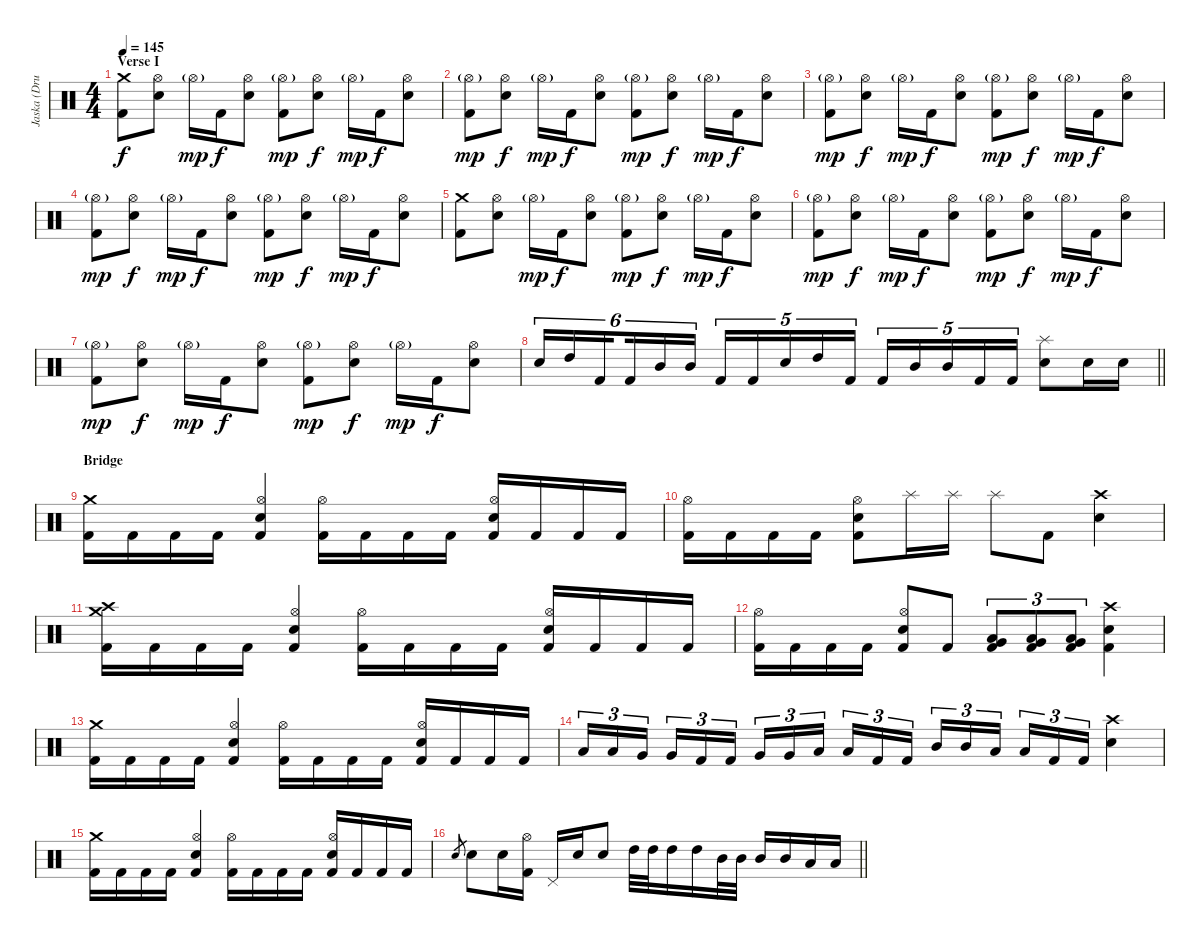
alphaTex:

\track ("Jaska (Drums)" "Jaska (Dru") {instrument percussion}
\staff {score}
\articulation defaults
\ts (4 4)
\section ("" "Verse I")
\tempo 145
\clef neutral
\ks c
("Crash medium (hit)" "Kick (hit) 2").8{dy f} ("Hi-Hat (open)" "Electric Snare (hit)").8 "Hi-Hat (open)"{g}.16{dy mp} "Kick (hit) 2".16{dy f} ("Hi-Hat (open)" "Electric Snare (hit)").8 ("Hi-Hat (open)"{g} "Kick (hit) 2").8{dy mp} ("Hi-Hat (open)" "Electric Snare (hit)").8{dy f} "Hi-Hat (open)"{g}.16{dy mp} "Kick (hit) 2".16{dy f} ("Hi-Hat (open)" "Electric Snare (hit)").8 |
("Hi-Hat (open)"{g} "Kick (hit) 2").8{dy mp} ("Hi-Hat (open)" "Electric Snare (hit)").8{dy f} "Hi-Hat (open)"{g}.16{dy mp} "Kick (hit) 2".16{dy f} ("Hi-Hat (open)" "Electric Snare (hit)").8 ("Hi-Hat (open)"{g} "Kick (hit) 2").8{dy mp} ("Hi-Hat (open)" "Electric Snare (hit)").8{dy f} "Hi-Hat (open)"{g}.16{dy mp} "Kick (hit) 2".16{dy f} ("Hi-Hat (open)" "Electric Snare (hit)").8 |
("Hi-Hat (open)"{g} "Kick (hit) 2").8{dy mp} ("Hi-Hat (open)" "Electric Snare (hit)").8{dy f} "Hi-Hat (open)"{g}.16{dy mp} "Kick (hit) 2".16{dy f} ("Hi-Hat (open)" "Electric Snare (hit)").8 ("Hi-Hat (open)"{g} "Kick (hit) 2").8{dy mp} ("Hi-Hat (open)" "Electric Snare (hit)").8{dy f} "Hi-Hat (open)"{g}.16{dy mp} "Kick (hit) 2".16{dy f} ("Hi-Hat (open)" "Electric Snare (hit)").8 |
("Hi-Hat (open)"{g} "Kick (hit) 2").8{dy mp} ("Hi-Hat (open)" "Electric Snare (hit)").8{dy f} "Hi-Hat (open)"{g}.16{dy mp} "Kick (hit) 2".16{dy f} ("Hi-Hat (open)" "Electric Snare (hit)").8 ("Hi-Hat (open)"{g} "Kick (hit) 2").8{dy mp} ("Hi-Hat (open)" "Electric Snare (hit)").8{dy f} "Hi-Hat (open)"{g}.16{dy mp} "Kick (hit) 2".16{dy f} ("Hi-Hat (open)" "Electric Snare (hit)").8 |
("Crash medium (hit)" "Kick (hit) 2").8 ("Hi-Hat (open)" "Electric Snare (hit)").8 "Hi-Hat (open)"{g}.16{dy mp} "Kick (hit) 2".16{dy f} ("Hi-Hat (open)" "Electric Snare (hit)").8 ("Hi-Hat (open)"{g} "Kick (hit) 2").8{dy mp} ("Hi-Hat (open)" "Electric Snare (hit)").8{dy f} "Hi-Hat (open)"{g}.16{dy mp} "Kick (hit) 2".16{dy f} ("Hi-Hat (open)" "Electric Snare (hit)").8 |
("Hi-Hat (open)"{g} "Kick (hit) 2").8{dy mp} ("Hi-Hat (open)" "Electric Snare (hit)").8{dy f} "Hi-Hat (open)"{g}.16{dy mp} "Kick (hit) 2".16{dy f} ("Hi-Hat (open)" "Electric Snare (hit)").8 ("Hi-Hat (open)"{g} "Kick (hit) 2").8{dy mp} ("Hi-Hat (open)" "Electric Snare (hit)").8{dy f} "Hi-Hat (open)"{g}.16{dy mp} "Kick (hit) 2".16{dy f} ("Hi-Hat (open)" "Electric Snare (hit)").8 |
("Hi-Hat (open)"{g} "Kick (hit) 2").8{dy mp} ("Hi-Hat (open)" "Electric Snare (hit)").8{dy f} "Hi-Hat (open)"{g}.16{dy mp} "Kick (hit) 2".16{dy f} ("Hi-Hat (open)" "Electric Snare (hit)").8 ("Hi-Hat (open)"{g} "Kick (hit) 2").8{dy mp} ("Hi-Hat (open)" "Electric Snare (hit)").8{dy f} "Hi-Hat (open)"{g}.16{dy mp} "Kick (hit) 2".16{dy f} ("Hi-Hat (open)" "Electric Snare (hit)").8 |
\barLineRight lightlight "Electric Snare (hit)".16{tu (6 4)} "High Tom (hit)".16{tu (6 4)} "Kick (hit) 2".16{tu (6 4) beam splitsecondary} "Kick (hit) 2".16{tu (6 4)} "Mid Tom (hit)".16{tu (6 4)} "Mid Tom (hit)".16{tu (6 4)} "Kick (hit) 2".16{tu (5 4)} "Kick (hit) 2".16{tu (5 4)} "Electric Snare (hit)".16{tu (5 4)} "High Tom (hit)".16{tu (5 4)} "Kick (hit) 2".16{tu (5 4)} "Kick (hit) 2".16{tu (5 4)} "Mid Tom (hit)".16{tu (5 4)} "Mid Tom (hit)".16{tu (5 4)} "Kick (hit) 2".16{tu (5 4)} "Kick (hit) 2".16{tu (5 4)}
("Splash (hit)" "Electric Snare (hit)").8 "Electric Snare (hit)".16 "Electric Snare (hit)".16 |
\section ("" "Bridge")
("Crash medium (hit)" "Kick (hit) 2").16 "Kick (hit) 2".16 "Kick (hit) 2".16 "Kick (hit) 2".16 ("Hi-Hat (open)" "Electric Snare (hit)" "Kick (hit) 2").4 ("Hi-Hat (open)" "Kick (hit) 2").16 "Kick (hit) 2".16 "Kick (hit) 2".16 "Kick (hit) 2".16 ("Hi-Hat (open)" "Electric Snare (hit)" "Kick (hit) 2").16 "Kick (hit) 2".16 "Kick (hit) 2".16 "Kick (hit) 2".16 |
("Hi-Hat (open)" "Kick (hit) 2").16 "Kick (hit) 2".16 "Kick (hit) 2".16 "Kick (hit) 2".16 ("Hi-Hat (open)" "Electric Snare (hit)" "Kick (hit) 2").8 "Splash (hit)".16 "Splash (hit)".16 "Splash (hit)".8 "Kick (hit) 2".8 ("Crash high (hit)" "Electric Snare (hit)").4 |
("Crash medium (hit)" "Crash high (hit)" "Kick (hit) 2").16 "Kick (hit) 2".16 "Kick (hit) 2".16 "Kick (hit) 2".16 ("Hi-Hat (open)" "Electric Snare (hit)" "Kick (hit) 2").4 ("Hi-Hat (open)" "Kick (hit) 2").16 "Kick (hit) 2".16 "Kick (hit) 2".16 "Kick (hit) 2".16 ("Hi-Hat (open)" "Electric Snare (hit)" "Kick (hit) 2").16 "Kick (hit) 2".16 "Kick (hit) 2".16 "Kick (hit) 2".16 |
("Hi-Hat (open)" "Kick (hit) 2").16 "Kick (hit) 2".16 "Kick (hit) 2".16 "Kick (hit) 2".16 ("Hi-Hat (open)" "Electric Snare (hit)" "Kick (hit) 2").8 "Kick (hit) 2".8 ("Low Tom (hit)" "Very Low Tom (hit)" "Kick (hit) 2").8{tu (3 2)} ("Low Tom (hit)" "Very Low Tom (hit)" "Kick (hit) 2").8{tu (3 2)} ("Low Tom (hit)" "Very Low Tom (hit)" "Kick (hit) 2").8{tu (3 2)} ("Crash high (hit)" "Electric Snare (hit)" "Kick (hit) 2").4 |
("Crash medium (hit)" "Kick (hit) 2").16 "Kick (hit) 2".16 "Kick (hit) 2".16 "Kick (hit) 2".16 ("Hi-Hat (open)" "Electric Snare (hit)" "Kick (hit) 2").4 ("Hi-Hat (open)" "Kick (hit) 2").16 "Kick (hit) 2".16 "Kick (hit) 2".16 "Kick (hit) 2".16 ("Hi-Hat (open)" "Electric Snare (hit)" "Kick (hit) 2").16 "Kick (hit) 2".16 "Kick (hit) 2".16 "Kick (hit) 2".16 |
"Low Tom (hit)".16{tu (3 2)} "Low Tom (hit)".16{tu (3 2)} "Very Low Tom (hit)".16{tu (3 2) beam splitsecondary} "Very Low Tom (hit)".16{tu (3 2)} "Kick (hit) 2".16{tu (3 2)} "Kick (hit) 2".16{tu (3 2)} "Very Low Tom (hit)".16{tu (3 2)} "Very Low Tom (hit)".16{tu (3 2)} "Low Floor Tom (hit)".16{tu (3 2) beam splitsecondary} "Low Floor Tom (hit)".16{tu (3 2)} "Kick (hit) 2".16{tu (3 2)} "Kick (hit) 2".16{tu (3 2)} "Mid Tom (hit)".16{tu (3 2)} "Mid Tom (hit)".16{tu (3 2)} "Low Tom (hit)".16{tu (3 2) beam splitsecondary} "Low Tom (hit)".16{tu (3 2)} "Kick (hit) 2".16{tu (3 2)} "Kick (hit) 2".16{tu (3 2)} ("Crash high (hit)" "Electric Snare (hit)").4 |
("Crash medium (hit)" "Kick (hit) 2").16 "Kick (hit) 2".16 "Kick (hit) 2".16 "Kick (hit) 2".16 ("Hi-Hat (open)" "Electric Snare (hit)" "Kick (hit) 2").4 ("Hi-Hat (open)" "Kick (hit) 2").16 "Kick (hit) 2".16 "Kick (hit) 2".16 "Kick (hit) 2".16 ("Hi-Hat (open)" "Electric Snare (hit)" "Kick (hit) 2").16 "Kick (hit) 2".16 "Kick (hit) 2".16 "Kick (hit) 2".16 |
\barLineRight lightlight "Electric Snare (hit)".8{gr} "Electric Snare (hit)".8 "Electric Snare (hit)".16
("Hi-Hat (open)" "Kick (hit) 2").16 "Pedal Hi-Hat (hit)".16 "Electric Snare (hit)".16 "Electric Snare (hit)".8 "High Tom (hit)".32 "High Tom (hit)".32 "High Tom (hit)".16 "High Tom (hit)".16 "Mid Tom (hit)".32 "Mid Tom (hit)".32 "Mid Tom (hit)".16 "Mid Tom (hit)".16 "Low Tom (hit)".16 "Low Tom (hit)".16
